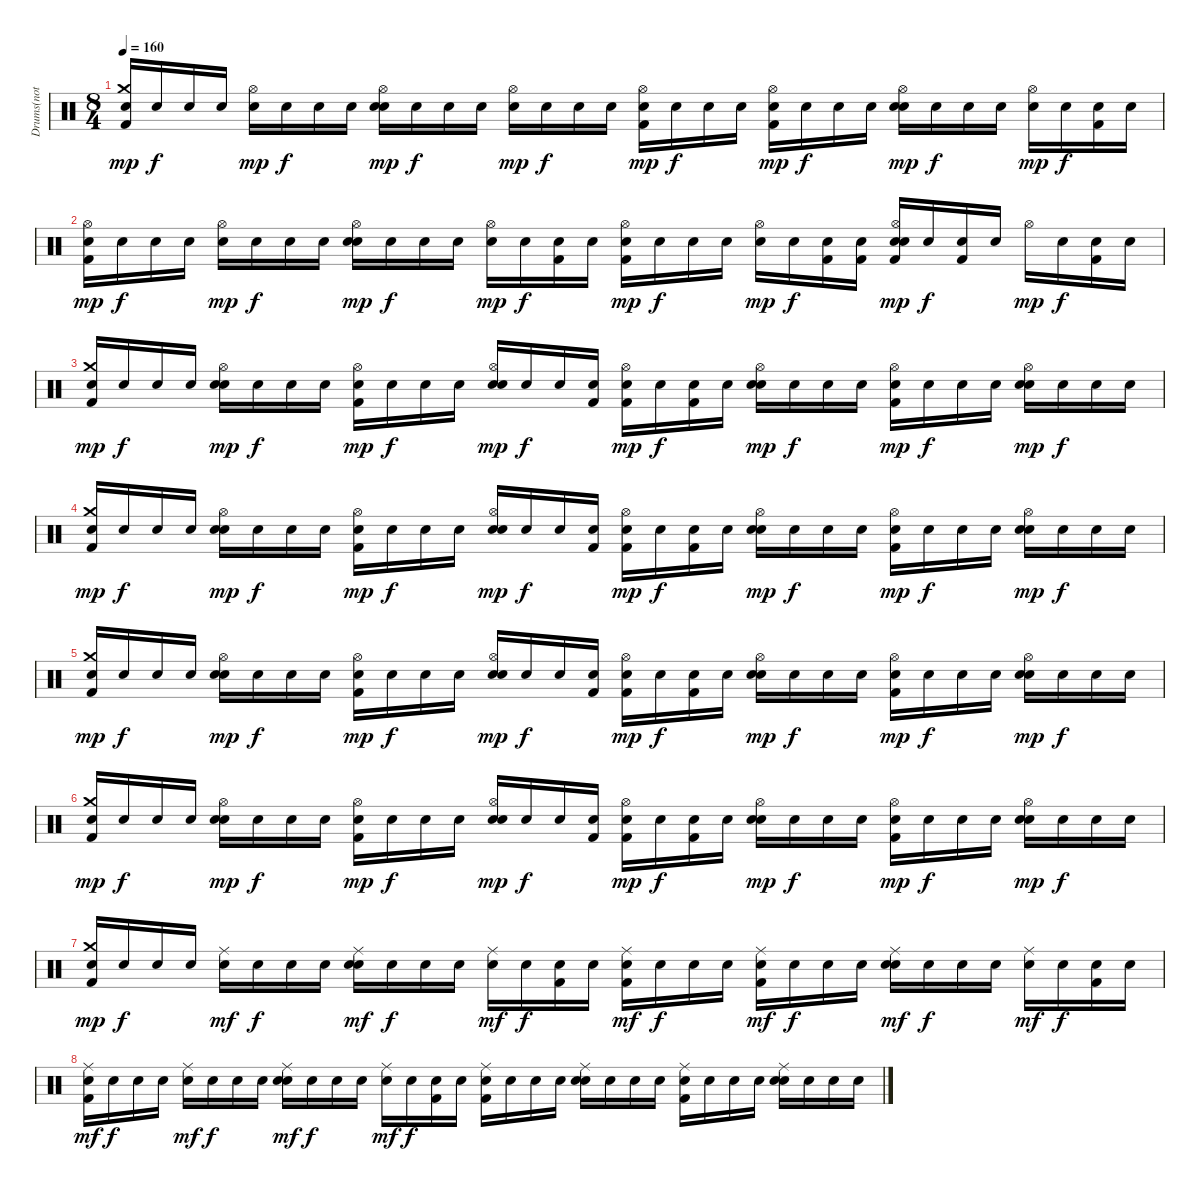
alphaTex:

\track ("Drums(not correct)" "Drums(not ") {instrument percussion}
\staff {score}
\articulation defaults
\ts (8 4)
\tempo 160
\clef neutral
\ks c
("Snare (hit)"{x} "Crash medium (hit)" "Kick (hit) 2").16{dy mp} "Snare (hit)"{x}.16{dy f} "Snare (hit)"{x}.16 "Snare (hit)"{x}.16 ("Snare (hit)"{x} "Hi-Hat (open)").16{dy mp} "Snare (hit)"{x}.16{dy f} "Snare (hit)"{x}.16 "Snare (hit)"{x}.16 ("Snare (hit)"{x} "Hi-Hat (open)" "Electric Snare (hit)").16{dy mp} "Snare (hit)"{x}.16{dy f} "Snare (hit)"{x}.16 "Snare (hit)"{x}.16 ("Snare (hit)"{x} "Hi-Hat (open)").16{dy mp} "Snare (hit)"{x}.16{dy f} "Snare (hit)"{x}.16 "Snare (hit)"{x}.16 ("Snare (hit)"{x} "Hi-Hat (open)" "Kick (hit) 2").16{dy mp} "Snare (hit)"{x}.16{dy f} "Snare (hit)"{x}.16 "Snare (hit)"{x}.16 ("Snare (hit)"{x} "Hi-Hat (open)" "Kick (hit) 2").16{dy mp} "Snare (hit)"{x}.16{dy f} "Snare (hit)"{x}.16 "Snare (hit)"{x}.16 ("Snare (hit)"{x} "Hi-Hat (open)" "Electric Snare (hit)").16{dy mp} "Snare (hit)"{x}.16{dy f} "Snare (hit)"{x}.16 "Snare (hit)"{x}.16 ("Snare (hit)"{x} "Hi-Hat (open)").16{dy mp} "Snare (hit)"{x}.16{dy f} ("Snare (hit)"{x} "Kick (hit) 2").16 "Snare (hit)"{x}.16 |
("Snare (hit)"{x} "Hi-Hat (open)" "Kick (hit) 2").16{dy mp} "Snare (hit)"{x}.16{dy f} "Snare (hit)"{x}.16 "Snare (hit)"{x}.16 ("Snare (hit)"{x} "Hi-Hat (open)").16{dy mp} "Snare (hit)"{x}.16{dy f} "Snare (hit)"{x}.16 "Snare (hit)"{x}.16 ("Snare (hit)"{x} "Hi-Hat (open)" "Electric Snare (hit)").16{dy mp} "Snare (hit)"{x}.16{dy f} "Snare (hit)"{x}.16 "Snare (hit)"{x}.16 ("Snare (hit)"{x} "Hi-Hat (open)").16{dy mp} "Snare (hit)"{x}.16{dy f} ("Snare (hit)"{x} "Kick (hit) 2").16 "Snare (hit)"{x}.16 ("Snare (hit)"{x} "Hi-Hat (open)" "Kick (hit) 2").16{dy mp} "Snare (hit)"{x}.16{dy f} "Snare (hit)"{x}.16 "Snare (hit)"{x}.16 ("Snare (hit)"{x} "Hi-Hat (open)").16{dy mp} "Snare (hit)"{x}.16{dy f} ("Snare (hit)"{x} "Kick (hit) 2").16 ("Snare (hit)"{x} "Kick (hit) 2").16 ("Snare (hit)"{x} "Hi-Hat (open)" "Electric Snare (hit)" "Kick (hit) 2").16{dy mp} "Snare (hit)"{x}.16{dy f} ("Snare (hit)"{x} "Kick (hit) 2").16 "Snare (hit)"{x}.16 "Hi-Hat (open)".16{dy mp} "Snare (hit)"{x}.16{dy f} ("Snare (hit)"{x} "Kick (hit) 2").16 "Snare (hit)"{x}.16 |
("Snare (hit)"{x} "Crash medium (hit)" "Kick (hit) 2").16{dy mp} "Snare (hit)"{x}.16{dy f} "Snare (hit)"{x}.16 "Snare (hit)"{x}.16 ("Snare (hit)"{x} "Hi-Hat (open)" "Electric Snare (hit)").16{dy mp} "Snare (hit)"{x}.16{dy f} "Snare (hit)"{x}.16 "Snare (hit)"{x}.16 ("Snare (hit)"{x} "Hi-Hat (open)" "Kick (hit) 2").16{dy mp} "Snare (hit)"{x}.16{dy f} "Snare (hit)"{x}.16 "Snare (hit)"{x}.16 ("Snare (hit)"{x} "Hi-Hat (open)" "Electric Snare (hit)").16{dy mp} "Snare (hit)"{x}.16{dy f} "Snare (hit)"{x}.16 ("Snare (hit)"{x} "Kick (hit) 2").16 ("Snare (hit)"{x} "Hi-Hat (open)" "Kick (hit) 2").16{dy mp} "Snare (hit)"{x}.16{dy f} ("Snare (hit)"{x} "Kick (hit) 2").16 "Snare (hit)"{x}.16 ("Snare (hit)"{x} "Hi-Hat (open)" "Electric Snare (hit)").16{dy mp} "Snare (hit)"{x}.16{dy f} "Snare (hit)"{x}.16 "Snare (hit)"{x}.16 ("Snare (hit)"{x} "Hi-Hat (open)" "Kick (hit) 2").16{dy mp} "Snare (hit)"{x}.16{dy f} "Snare (hit)"{x}.16 "Snare (hit)"{x}.16 ("Snare (hit)"{x} "Hi-Hat (open)" "Electric Snare (hit)").16{dy mp} "Snare (hit)"{x}.16{dy f} "Snare (hit)"{x}.16 "Snare (hit)"{x}.16 |
("Snare (hit)"{x} "Crash medium (hit)" "Kick (hit) 2").16{dy mp} "Snare (hit)"{x}.16{dy f} "Snare (hit)"{x}.16 "Snare (hit)"{x}.16 ("Snare (hit)"{x} "Hi-Hat (open)" "Electric Snare (hit)").16{dy mp} "Snare (hit)"{x}.16{dy f} "Snare (hit)"{x}.16 "Snare (hit)"{x}.16 ("Snare (hit)"{x} "Hi-Hat (open)" "Kick (hit) 2").16{dy mp} "Snare (hit)"{x}.16{dy f} "Snare (hit)"{x}.16 "Snare (hit)"{x}.16 ("Snare (hit)"{x} "Hi-Hat (open)" "Electric Snare (hit)").16{dy mp} "Snare (hit)"{x}.16{dy f} "Snare (hit)"{x}.16 ("Snare (hit)"{x} "Kick (hit) 2").16 ("Snare (hit)"{x} "Hi-Hat (open)" "Kick (hit) 2").16{dy mp} "Snare (hit)"{x}.16{dy f} ("Snare (hit)"{x} "Kick (hit) 2").16 "Snare (hit)"{x}.16 ("Snare (hit)"{x} "Hi-Hat (open)" "Electric Snare (hit)").16{dy mp} "Snare (hit)"{x}.16{dy f} "Snare (hit)"{x}.16 "Snare (hit)"{x}.16 ("Snare (hit)"{x} "Hi-Hat (open)" "Kick (hit) 2").16{dy mp} "Snare (hit)"{x}.16{dy f} "Snare (hit)"{x}.16 "Snare (hit)"{x}.16 ("Snare (hit)"{x} "Hi-Hat (open)" "Electric Snare (hit)").16{dy mp} "Snare (hit)"{x}.16{dy f} "Snare (hit)"{x}.16 "Snare (hit)"{x}.16 |
("Snare (hit)"{x} "Crash medium (hit)" "Kick (hit) 2").16{dy mp} "Snare (hit)"{x}.16{dy f} "Snare (hit)"{x}.16 "Snare (hit)"{x}.16 ("Snare (hit)"{x} "Hi-Hat (open)" "Electric Snare (hit)").16{dy mp} "Snare (hit)"{x}.16{dy f} "Snare (hit)"{x}.16 "Snare (hit)"{x}.16 ("Snare (hit)"{x} "Hi-Hat (open)" "Kick (hit) 2").16{dy mp} "Snare (hit)"{x}.16{dy f} "Snare (hit)"{x}.16 "Snare (hit)"{x}.16 ("Snare (hit)"{x} "Hi-Hat (open)" "Electric Snare (hit)").16{dy mp} "Snare (hit)"{x}.16{dy f} "Snare (hit)"{x}.16 ("Snare (hit)"{x} "Kick (hit) 2").16 ("Snare (hit)"{x} "Hi-Hat (open)" "Kick (hit) 2").16{dy mp} "Snare (hit)"{x}.16{dy f} ("Snare (hit)"{x} "Kick (hit) 2").16 "Snare (hit)"{x}.16 ("Snare (hit)"{x} "Hi-Hat (open)" "Electric Snare (hit)").16{dy mp} "Snare (hit)"{x}.16{dy f} "Snare (hit)"{x}.16 "Snare (hit)"{x}.16 ("Snare (hit)"{x} "Hi-Hat (open)" "Kick (hit) 2").16{dy mp} "Snare (hit)"{x}.16{dy f} "Snare (hit)"{x}.16 "Snare (hit)"{x}.16 ("Snare (hit)"{x} "Hi-Hat (open)" "Electric Snare (hit)").16{dy mp} "Snare (hit)"{x}.16{dy f} "Snare (hit)"{x}.16 "Snare (hit)"{x}.16 |
("Snare (hit)"{x} "Crash medium (hit)" "Kick (hit) 2").16{dy mp} "Snare (hit)"{x}.16{dy f} "Snare (hit)"{x}.16 "Snare (hit)"{x}.16 ("Snare (hit)"{x} "Hi-Hat (open)" "Electric Snare (hit)").16{dy mp} "Snare (hit)"{x}.16{dy f} "Snare (hit)"{x}.16 "Snare (hit)"{x}.16 ("Snare (hit)"{x} "Hi-Hat (open)" "Kick (hit) 2").16{dy mp} "Snare (hit)"{x}.16{dy f} "Snare (hit)"{x}.16 "Snare (hit)"{x}.16 ("Snare (hit)"{x} "Hi-Hat (open)" "Electric Snare (hit)").16{dy mp} "Snare (hit)"{x}.16{dy f} "Snare (hit)"{x}.16 ("Snare (hit)"{x} "Kick (hit) 2").16 ("Snare (hit)"{x} "Hi-Hat (open)" "Kick (hit) 2").16{dy mp} "Snare (hit)"{x}.16{dy f} ("Snare (hit)"{x} "Kick (hit) 2").16 "Snare (hit)"{x}.16 ("Snare (hit)"{x} "Hi-Hat (open)" "Electric Snare (hit)").16{dy mp} "Snare (hit)"{x}.16{dy f} "Snare (hit)"{x}.16 "Snare (hit)"{x}.16 ("Snare (hit)"{x} "Hi-Hat (open)" "Kick (hit) 2").16{dy mp} "Snare (hit)"{x}.16{dy f} "Snare (hit)"{x}.16 "Snare (hit)"{x}.16 ("Snare (hit)"{x} "Hi-Hat (open)" "Electric Snare (hit)").16{dy mp} "Snare (hit)"{x}.16{dy f} "Snare (hit)"{x}.16 "Snare (hit)"{x}.16 |
("Snare (hit)"{x} "Crash medium (hit)" "Kick (hit) 2").16{dy mp} "Snare (hit)"{x}.16{dy f} "Snare (hit)"{x}.16 "Snare (hit)"{x}.16 ("Snare (hit)"{x} "Ride (middle)").16{dy mf} "Snare (hit)"{x}.16{dy f} "Snare (hit)"{x}.16 "Snare (hit)"{x}.16 ("Snare (hit)"{x} "Ride (middle)" "Electric Snare (hit)").16{dy mf} "Snare (hit)"{x}.16{dy f} "Snare (hit)"{x}.16 "Snare (hit)"{x}.16 ("Snare (hit)"{x} "Ride (middle)").16{dy mf} "Snare (hit)"{x}.16{dy f} ("Snare (hit)"{x} "Kick (hit) 2").16 "Snare (hit)"{x}.16 ("Snare (hit)"{x} "Ride (middle)" "Kick (hit) 2").16{dy mf} "Snare (hit)"{x}.16{dy f} "Snare (hit)"{x}.16 "Snare (hit)"{x}.16 ("Snare (hit)"{x} "Ride (middle)" "Kick (hit) 2").16{dy mf} "Snare (hit)"{x}.16{dy f} "Snare (hit)"{x}.16 "Snare (hit)"{x}.16 ("Snare (hit)"{x} "Ride (middle)" "Electric Snare (hit)").16{dy mf} "Snare (hit)"{x}.16{dy f} "Snare (hit)"{x}.16 "Snare (hit)"{x}.16 ("Snare (hit)"{x} "Ride (middle)").16{dy mf} "Snare (hit)"{x}.16{dy f} ("Snare (hit)"{x} "Kick (hit) 2").16 "Snare (hit)"{x}.16 |
("Snare (hit)"{x} "Ride (middle)" "Kick (hit) 2").16{dy mf} "Snare (hit)"{x}.16{dy f} "Snare (hit)"{x}.16 "Snare (hit)"{x}.16 ("Snare (hit)"{x} "Ride (middle)").16{dy mf} "Snare (hit)"{x}.16{dy f} "Snare (hit)"{x}.16 "Snare (hit)"{x}.16 ("Snare (hit)"{x} "Ride (middle)" "Electric Snare (hit)").16{dy mf} "Snare (hit)"{x}.16{dy f} "Snare (hit)"{x}.16 "Snare (hit)"{x}.16 ("Snare (hit)"{x} "Ride (middle)").16{dy mf} "Snare (hit)"{x}.16{dy f} ("Snare (hit)"{x} "Kick (hit) 2").16 "Snare (hit)"{x}.16 ("Snare (hit)"{x} "Ride (middle)" "Kick (hit) 2").16 "Snare (hit)"{x}.16 "Snare (hit)"{x}.16 "Snare (hit)"{x}.16 ("Snare (hit)"{x} "Ride (middle)" "Electric Snare (hit)").16 "Snare (hit)"{x}.16 "Snare (hit)"{x}.16 "Snare (hit)"{x}.16 ("Snare (hit)"{x} "Ride (middle)" "Kick (hit) 2").16 "Snare (hit)"{x}.16 "Snare (hit)"{x}.16 "Snare (hit)"{x}.16 ("Snare (hit)"{x} "Ride (middle)" "Electric Snare (hit)").16 "Snare (hit)"{x}.16 "Snare (hit)"{x}.16 "Snare (hit)"{x}.16
